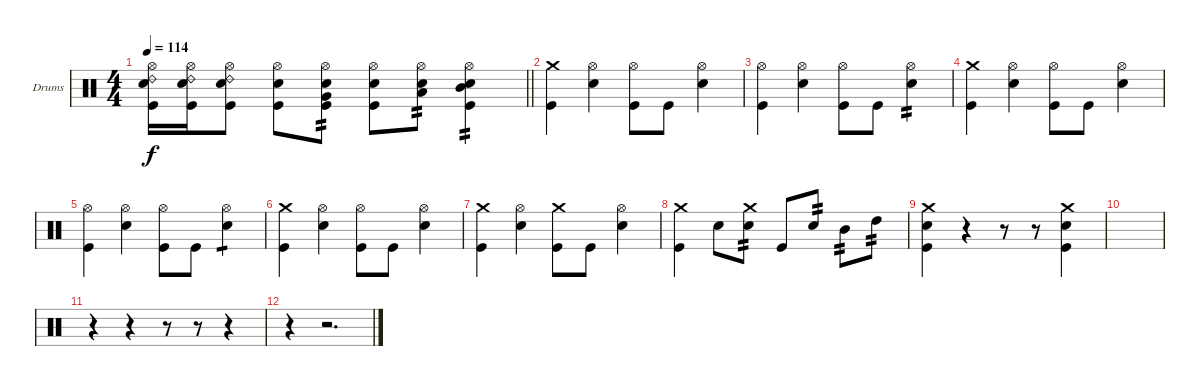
\bracketExtendMode groupsimilarinstruments
\firstSystemTrackNameOrientation horizontal
\otherSystemsTrackNameOrientation horizontal
\track ("Drumkit" "Drums") {instrument percussion}
\staff {score}
\articulation defaults
\ts (4 4)
\tempo 114
\clef neutral
\barLineRight lightlight
\ks c
("Hi-Hat (open)" "Snare (hit) 2" "Ride (bell) 2" "Kick (hit)").16{dy f} ("Hi-Hat (open)" "Snare (hit) 2" "Ride (bell) 2" "Kick (hit)").16 ("Hi-Hat (open)" "Snare (hit) 2" "Ride (bell) 2" "Kick (hit)").8 ("Hi-Hat (open)" "Snare (hit) 2" "Kick (hit)").8 ("Hi-Hat (open)" "Snare (hit) 2" "Very Low Tom (hit)" "Kick (hit)").8{tp 2} ("Hi-Hat (open)" "Snare (hit) 2" "Kick (hit)").8 ("Hi-Hat (open)" "Snare (hit) 2" "Low Tom (hit)").8{tp 2} ("Hi-Hat (open)" "Snare (hit) 2" "Mid Tom (hit)" "Kick (hit)").4{tp 2} |
("Crash medium (hit)" "Kick (hit)").4 ("Hi-Hat (open)" "Snare (hit) 2").4 ("Hi-Hat (open)" "Kick (hit)").8 "Kick (hit)".8 ("Hi-Hat (open)" "Snare (hit) 2").4 |
("Hi-Hat (open)" "Kick (hit)").4 ("Hi-Hat (open)" "Snare (hit) 2").4 ("Hi-Hat (open)" "Kick (hit)").8 "Kick (hit)".8 ("Hi-Hat (open)" "Snare (hit) 2").4{tp 2} |
("Crash medium (hit)" "Kick (hit)").4 ("Hi-Hat (open)" "Snare (hit) 2").4 ("Hi-Hat (open)" "Kick (hit)").8 "Kick (hit)".8 ("Hi-Hat (open)" "Snare (hit) 2").4 |
("Hi-Hat (open)" "Kick (hit)").4 ("Hi-Hat (open)" "Snare (hit) 2").4 ("Hi-Hat (open)" "Kick (hit)").8 "Kick (hit)".8 ("Hi-Hat (open)" "Snare (hit) 2").4{tp 1} |
("Crash medium (hit)" "Kick (hit)").4 ("Hi-Hat (open)" "Snare (hit) 2").4 ("Hi-Hat (open)" "Kick (hit)").8 "Kick (hit)".8 ("Hi-Hat (open)" "Snare (hit) 2").4 |
("Crash medium (hit)" "Kick (hit)").4 ("Hi-Hat (open)" "Snare (hit) 2").4 ("Crash medium (hit)" "Kick (hit)").8 "Kick (hit)".8 ("Hi-Hat (open)" "Snare (hit) 2").4 |
("Crash medium (hit)" "Kick (hit)").4 "Snare (hit) 2".8 ("Crash medium (hit)" "Snare (hit) 2").8{tp 2} "Kick (hit)".8 "Snare (hit) 2".8{tp 2} "Mid Tom (hit)".8{tp 2} "High Tom (hit)".8{tp 2} |
("Crash medium (hit)" "Snare (hit) 2" "Kick (hit)").4 r.4 r.8 r.8 ("Crash medium (hit)" "Snare (hit) 2" "Kick (hit)").4 |
|
r.4 r.4 r.8 r.8 r.4 |
r.4 r.2{d}
